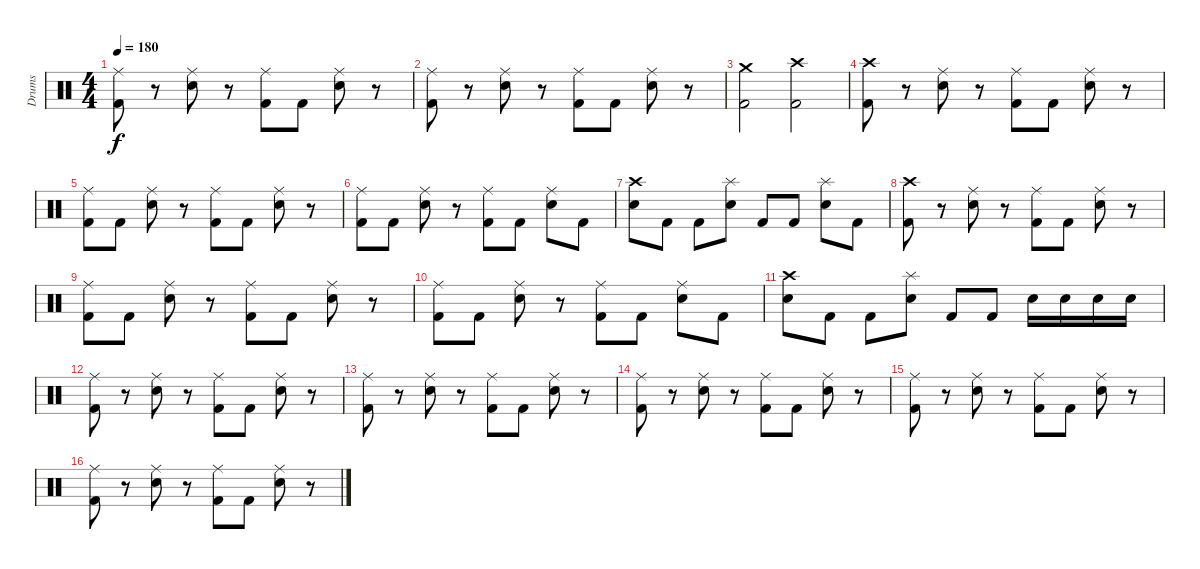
\track ("Drums" "Drums") {instrument percussion}
\staff {score}
\articulation defaults
\ts (4 4)
\tempo 180
\clef neutral
\ks c
("Ride (middle)" "Kick (hit) 2").8{dy f} r.8 ("Ride (middle)" "Snare (hit) 2").8 r.8 ("Ride (middle)" "Kick (hit) 2").8 "Kick (hit) 2".8 ("Ride (middle)" "Snare (hit) 2").8 r.8 |
("Ride (middle)" "Kick (hit) 2").8 r.8 ("Ride (middle)" "Snare (hit) 2").8 r.8 ("Ride (middle)" "Kick (hit) 2").8 "Kick (hit) 2".8 ("Ride (middle)" "Snare (hit) 2").8 r.8 |
("Crash medium (hit)" "Kick (hit) 2").2 ("Crash high (hit)" "Kick (hit) 2").2 |
("Crash high (hit)" "Kick (hit) 2").8 r.8 ("Ride (middle)" "Snare (hit) 2").8 r.8 ("Ride (middle)" "Kick (hit) 2").8 "Kick (hit) 2".8 ("Ride (middle)" "Snare (hit) 2").8 r.8 |
("Ride (middle)" "Kick (hit) 2").8 "Kick (hit) 2".8 ("Ride (middle)" "Snare (hit) 2").8 r.8 ("Ride (middle)" "Kick (hit) 2").8 "Kick (hit) 2".8 ("Ride (middle)" "Snare (hit) 2").8 r.8 |
("Ride (middle)" "Kick (hit) 2").8 "Kick (hit) 2".8 ("Ride (middle)" "Snare (hit) 2").8 r.8 ("Ride (middle)" "Kick (hit) 2").8 "Kick (hit) 2".8 ("Ride (middle)" "Snare (hit) 2").8 "Kick (hit) 2".8 |
("Crash high (hit)" "Snare (hit) 2").8 "Kick (hit) 2".8 "Kick (hit) 2".8 ("Splash (hit)" "Snare (hit) 2").8 "Kick (hit) 2".8 "Kick (hit) 2".8 ("Splash (hit)" "Snare (hit) 2").8 "Kick (hit) 2".8 |
("Crash high (hit)" "Kick (hit) 2").8 r.8 ("Ride (middle)" "Snare (hit) 2").8 r.8 ("Ride (middle)" "Kick (hit) 2").8 "Kick (hit) 2".8 ("Ride (middle)" "Snare (hit) 2").8 r.8 |
("Ride (middle)" "Kick (hit) 2").8 "Kick (hit) 2".8 ("Ride (middle)" "Snare (hit) 2").8 r.8 ("Ride (middle)" "Kick (hit) 2").8 "Kick (hit) 2".8 ("Ride (middle)" "Snare (hit) 2").8 r.8 |
("Ride (middle)" "Kick (hit) 2").8 "Kick (hit) 2".8 ("Ride (middle)" "Snare (hit) 2").8 r.8 ("Ride (middle)" "Kick (hit) 2").8 "Kick (hit) 2".8 ("Ride (middle)" "Snare (hit) 2").8 "Kick (hit) 2".8 |
("Crash high (hit)" "Snare (hit) 2").8 "Kick (hit) 2".8 "Kick (hit) 2".8 ("Splash (hit)" "Snare (hit) 2").8 "Kick (hit) 2".8 "Kick (hit) 2".8 "Snare (hit) 2".16 "Snare (hit) 2".16 "Snare (hit) 2".16 "Snare (hit) 2".16 |
("Ride (middle)" "Kick (hit) 2").8 r.8 ("Ride (middle)" "Snare (hit) 2").8 r.8 ("Ride (middle)" "Kick (hit) 2").8 "Kick (hit) 2".8 ("Ride (middle)" "Snare (hit) 2").8 r.8 |
("Ride (middle)" "Kick (hit) 2").8 r.8 ("Ride (middle)" "Snare (hit) 2").8 r.8 ("Ride (middle)" "Kick (hit) 2").8 "Kick (hit) 2".8 ("Ride (middle)" "Snare (hit) 2").8 r.8 |
("Ride (middle)" "Kick (hit) 2").8 r.8 ("Ride (middle)" "Snare (hit) 2").8 r.8 ("Ride (middle)" "Kick (hit) 2").8 "Kick (hit) 2".8 ("Ride (middle)" "Snare (hit) 2").8 r.8 |
("Ride (middle)" "Kick (hit) 2").8 r.8 ("Ride (middle)" "Snare (hit) 2").8 r.8 ("Ride (middle)" "Kick (hit) 2").8 "Kick (hit) 2".8 ("Ride (middle)" "Snare (hit) 2").8 r.8 |
("Ride (middle)" "Kick (hit) 2").8 r.8 ("Ride (middle)" "Snare (hit) 2").8 r.8 ("Ride (middle)" "Kick (hit) 2").8 "Kick (hit) 2".8 ("Ride (middle)" "Snare (hit) 2").8 r.8
